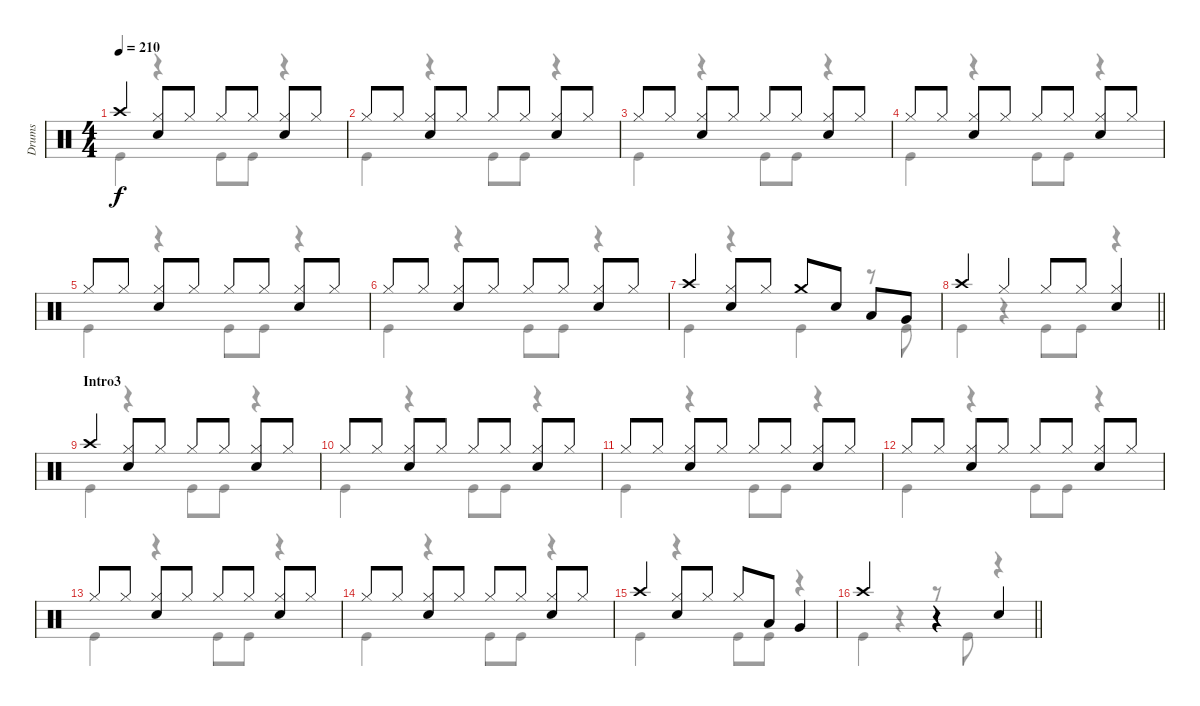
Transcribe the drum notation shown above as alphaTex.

\track ("Drums" "Drums") {instrument percussion}
\staff {score}
\articulation defaults
\voice
\ts (4 4)
\tempo 210
\clef neutral
\ks c "Crash high (hit)".4{dy f}
("Hi-Hat (closed)" "Snare (hit) 2").8 "Hi-Hat (closed)".8 "Hi-Hat (closed)".8 "Hi-Hat (closed)".8 ("Hi-Hat (closed)" "Snare (hit) 2").8 "Hi-Hat (closed)".8 |
"Hi-Hat (closed)".8 "Hi-Hat (closed)".8 ("Hi-Hat (closed)" "Snare (hit) 2").8 "Hi-Hat (closed)".8 "Hi-Hat (closed)".8 "Hi-Hat (closed)".8 ("Hi-Hat (closed)" "Snare (hit) 2").8 "Hi-Hat (closed)".8 |
"Hi-Hat (closed)".8 "Hi-Hat (closed)".8 ("Hi-Hat (closed)" "Snare (hit) 2").8 "Hi-Hat (closed)".8 "Hi-Hat (closed)".8 "Hi-Hat (closed)".8 ("Hi-Hat (closed)" "Snare (hit) 2").8 "Hi-Hat (closed)".8 |
"Hi-Hat (closed)".8 "Hi-Hat (closed)".8 ("Hi-Hat (closed)" "Snare (hit) 2").8 "Hi-Hat (closed)".8 "Hi-Hat (closed)".8 "Hi-Hat (closed)".8 ("Hi-Hat (closed)" "Snare (hit) 2").8 "Hi-Hat (closed)".8 |
"Hi-Hat (closed)".8 "Hi-Hat (closed)".8 ("Hi-Hat (closed)" "Snare (hit) 2").8 "Hi-Hat (closed)".8 "Hi-Hat (closed)".8 "Hi-Hat (closed)".8 ("Hi-Hat (closed)" "Snare (hit) 2").8 "Hi-Hat (closed)".8 |
"Hi-Hat (closed)".8 "Hi-Hat (closed)".8 ("Hi-Hat (closed)" "Snare (hit) 2").8 "Hi-Hat (closed)".8 "Hi-Hat (closed)".8 "Hi-Hat (closed)".8 ("Hi-Hat (closed)" "Snare (hit) 2").8 "Hi-Hat (closed)".8 |
"Crash high (hit)".4 ("Hi-Hat (closed)" "Snare (hit) 2").8 "Hi-Hat (closed)".8 "Crash medium (hit)".8 "Snare (hit) 2".8 "Low Tom (hit)".8 "Very Low Tom (hit)".8 |
\barLineRight lightlight "Crash high (hit)".4 "Hi-Hat (closed)".4 "Hi-Hat (closed)".8 "Hi-Hat (closed)".8
("Hi-Hat (closed)" "Snare (hit) 2").4 |
\section ("" "Intro3")
"Crash high (hit)".4 ("Hi-Hat (closed)" "Snare (hit) 2").8 "Hi-Hat (closed)".8 "Hi-Hat (closed)".8 "Hi-Hat (closed)".8 ("Hi-Hat (closed)" "Snare (hit) 2").8 "Hi-Hat (closed)".8 |
"Hi-Hat (closed)".8 "Hi-Hat (closed)".8 ("Hi-Hat (closed)" "Snare (hit) 2").8 "Hi-Hat (closed)".8 "Hi-Hat (closed)".8 "Hi-Hat (closed)".8 ("Hi-Hat (closed)" "Snare (hit) 2").8 "Hi-Hat (closed)".8 |
"Hi-Hat (closed)".8 "Hi-Hat (closed)".8 ("Hi-Hat (closed)" "Snare (hit) 2").8 "Hi-Hat (closed)".8 "Hi-Hat (closed)".8 "Hi-Hat (closed)".8 ("Hi-Hat (closed)" "Snare (hit) 2").8 "Hi-Hat (closed)".8 |
"Hi-Hat (closed)".8 "Hi-Hat (closed)".8 ("Hi-Hat (closed)" "Snare (hit) 2").8 "Hi-Hat (closed)".8 "Hi-Hat (closed)".8 "Hi-Hat (closed)".8 ("Hi-Hat (closed)" "Snare (hit) 2").8 "Hi-Hat (closed)".8 |
"Hi-Hat (closed)".8 "Hi-Hat (closed)".8 ("Hi-Hat (closed)" "Snare (hit) 2").8 "Hi-Hat (closed)".8 "Hi-Hat (closed)".8 "Hi-Hat (closed)".8 ("Hi-Hat (closed)" "Snare (hit) 2").8 "Hi-Hat (closed)".8 |
"Hi-Hat (closed)".8 "Hi-Hat (closed)".8 ("Hi-Hat (closed)" "Snare (hit) 2").8 "Hi-Hat (closed)".8 "Hi-Hat (closed)".8 "Hi-Hat (closed)".8 ("Hi-Hat (closed)" "Snare (hit) 2").8 "Hi-Hat (closed)".8 |
"Crash high (hit)".4 ("Hi-Hat (closed)" "Snare (hit) 2").8 "Hi-Hat (closed)".8 "Hi-Hat (closed)".8 "Low Tom (hit)".8 "Very Low Tom (hit)".4 |
\barLineRight lightlight "Crash high (hit)".2
r.4 "Snare (hit) 2".4
\voice
\clef neutral
\ottava regular
\simile none
\ks c "Kick (hit)".4{dy f}
r.4 "Kick (hit)".8 "Kick (hit)".8 r.4 |
"Kick (hit)".4 r.4 "Kick (hit)".8 "Kick (hit)".8 r.4 |
"Kick (hit)".4 r.4 "Kick (hit)".8 "Kick (hit)".8 r.4 |
"Kick (hit)".4 r.4 "Kick (hit)".8 "Kick (hit)".8 r.4 |
"Kick (hit)".4 r.4 "Kick (hit)".8 "Kick (hit)".8 r.4 |
"Kick (hit)".4 r.4 "Kick (hit)".8 "Kick (hit)".8 r.4 |
"Kick (hit)".4 r.4 "Kick (hit)".4 r.8 "Kick (hit)".8 |
\barLineRight lightlight "Kick (hit)".4
r.4 "Kick (hit)".8 "Kick (hit)".8 r.4 |
"Kick (hit)".4 r.4 "Kick (hit)".8 "Kick (hit)".8 r.4 |
"Kick (hit)".4 r.4 "Kick (hit)".8 "Kick (hit)".8 r.4 |
"Kick (hit)".4 r.4 "Kick (hit)".8 "Kick (hit)".8 r.4 |
"Kick (hit)".4 r.4 "Kick (hit)".8 "Kick (hit)".8 r.4 |
"Kick (hit)".4 r.4 "Kick (hit)".8 "Kick (hit)".8 r.4 |
"Kick (hit)".4 r.4 "Kick (hit)".8 "Kick (hit)".8 r.4 |
"Kick (hit)".4 r.4 "Kick (hit)".8 "Kick (hit)".8 r.4 |
\barLineRight lightlight "Kick (hit)".4
r.4 r.8 "Kick (hit)".8 r.4
